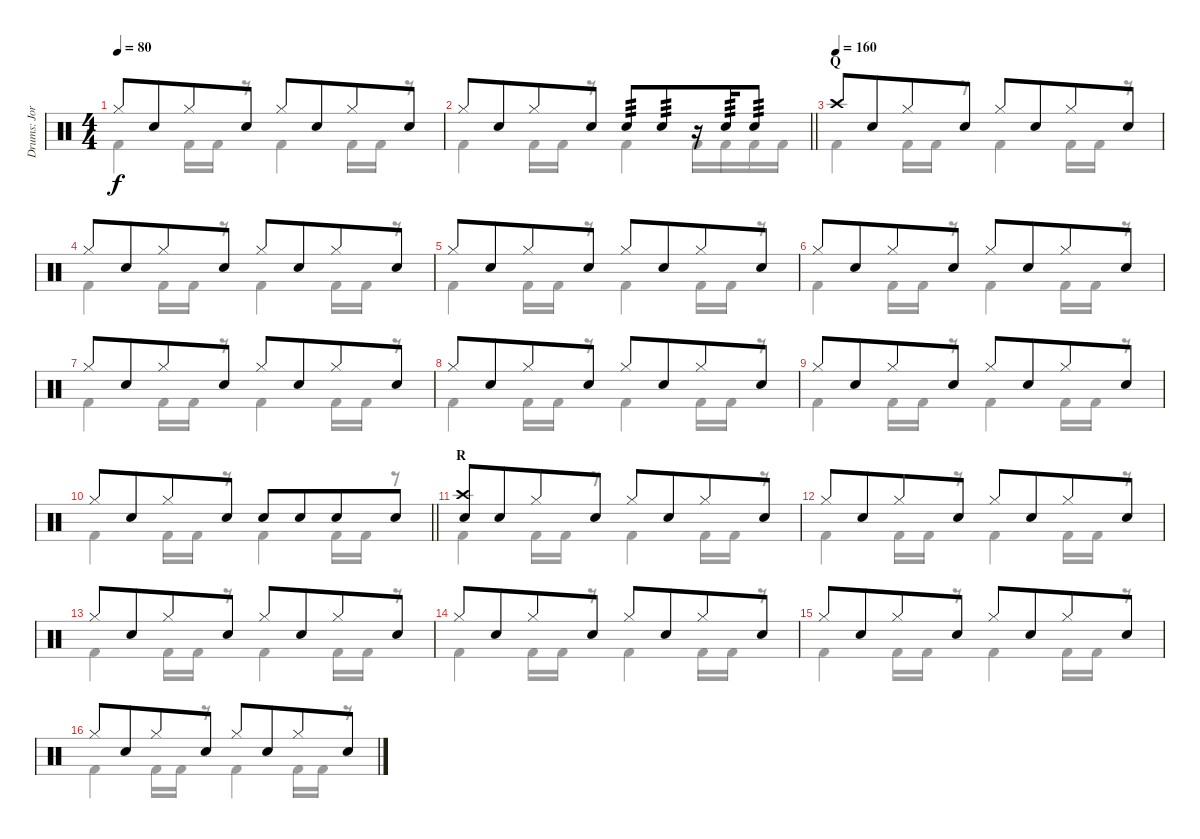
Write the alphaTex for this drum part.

\track ("Drums: Jorg" "Drums: Jor") {instrument percussion}
\staff {score}
\articulation defaults
\voice
\ts (4 4)
\tempo 80
\clef neutral
\ks c "Hi-Hat (closed)".8{dy f} "Snare (hit) 2".8{beam merge} "Hi-Hat (closed)".8 "Snare (hit) 2".8 "Hi-Hat (closed)".8 "Snare (hit) 2".8{beam merge} "Hi-Hat (closed)".8 "Snare (hit) 2".8
|
\barLineRight lightlight "Hi-Hat (closed)".8 "Snare (hit) 2".8{beam merge} "Hi-Hat (closed)".8 "Snare (hit) 2".8 "Snare (hit) 2".8{tp 3} "Snare (hit) 2".8{tp 3 beam merge}
r.16 "Snare (hit) 2".16{tp 3} "Snare (hit) 2".8{tp 3} |
\section ("" "Q")
\tempo (160)
"Crash high (hit)".8 "Snare (hit) 2".8{beam merge} "Hi-Hat (closed)".8 "Snare (hit) 2".8{beam split} "Hi-Hat (closed)".8 "Snare (hit) 2".8{beam merge} "Hi-Hat (closed)".8 "Snare (hit) 2".8 |
"Hi-Hat (closed)".8 "Snare (hit) 2".8{beam merge} "Hi-Hat (closed)".8 "Snare (hit) 2".8{beam split} "Hi-Hat (closed)".8 "Snare (hit) 2".8{beam merge} "Hi-Hat (closed)".8 "Snare (hit) 2".8 |
"Hi-Hat (closed)".8 "Snare (hit) 2".8{beam merge} "Hi-Hat (closed)".8 "Snare (hit) 2".8{beam split} "Hi-Hat (closed)".8 "Snare (hit) 2".8{beam merge} "Hi-Hat (closed)".8 "Snare (hit) 2".8 |
"Hi-Hat (closed)".8 "Snare (hit) 2".8{beam merge} "Hi-Hat (closed)".8 "Snare (hit) 2".8{beam split} "Hi-Hat (closed)".8 "Snare (hit) 2".8{beam merge} "Hi-Hat (closed)".8 "Snare (hit) 2".8 |
"Hi-Hat (closed)".8 "Snare (hit) 2".8{beam merge} "Hi-Hat (closed)".8 "Snare (hit) 2".8{beam split} "Hi-Hat (closed)".8 "Snare (hit) 2".8{beam merge} "Hi-Hat (closed)".8 "Snare (hit) 2".8 |
"Hi-Hat (closed)".8 "Snare (hit) 2".8{beam merge} "Hi-Hat (closed)".8 "Snare (hit) 2".8{beam split} "Hi-Hat (closed)".8 "Snare (hit) 2".8{beam merge} "Hi-Hat (closed)".8 "Snare (hit) 2".8 |
"Hi-Hat (closed)".8 "Snare (hit) 2".8{beam merge} "Hi-Hat (closed)".8 "Snare (hit) 2".8 "Hi-Hat (closed)".8 "Snare (hit) 2".8{beam merge} "Hi-Hat (closed)".8 "Snare (hit) 2".8 |
\barLineRight lightlight "Hi-Hat (closed)".8 "Snare (hit) 2".8{beam merge} "Hi-Hat (closed)".8 "Snare (hit) 2".8 "Snare (hit) 2".8 "Snare (hit) 2".8{beam merge} "Snare (hit) 2".8 "Snare (hit) 2".8
|
\section ("" "R")
("Crash high (hit)" "Snare (hit)").8 "Snare (hit) 2".8{beam merge} "Hi-Hat (closed)".8 "Snare (hit) 2".8{beam split} "Hi-Hat (closed)".8 "Snare (hit) 2".8{beam merge} "Hi-Hat (closed)".8 "Snare (hit) 2".8 |
"Hi-Hat (closed)".8 "Snare (hit) 2".8{beam merge} "Hi-Hat (closed)".8 "Snare (hit) 2".8{beam split} "Hi-Hat (closed)".8 "Snare (hit) 2".8{beam merge} "Hi-Hat (closed)".8 "Snare (hit) 2".8 |
"Hi-Hat (closed)".8 "Snare (hit) 2".8{beam merge} "Hi-Hat (closed)".8 "Snare (hit) 2".8{beam split} "Hi-Hat (closed)".8 "Snare (hit) 2".8{beam merge} "Hi-Hat (closed)".8 "Snare (hit) 2".8 |
"Hi-Hat (closed)".8 "Snare (hit) 2".8{beam merge} "Hi-Hat (closed)".8 "Snare (hit) 2".8{beam split} "Hi-Hat (closed)".8 "Snare (hit) 2".8{beam merge} "Hi-Hat (closed)".8 "Snare (hit) 2".8 |
"Hi-Hat (closed)".8 "Snare (hit) 2".8{beam merge} "Hi-Hat (closed)".8 "Snare (hit) 2".8{beam split} "Hi-Hat (closed)".8 "Snare (hit) 2".8{beam merge} "Hi-Hat (closed)".8 "Snare (hit) 2".8 |
"Hi-Hat (closed)".8 "Snare (hit) 2".8{beam merge} "Hi-Hat (closed)".8 "Snare (hit) 2".8{beam split} "Hi-Hat (closed)".8 "Snare (hit) 2".8{beam merge} "Hi-Hat (closed)".8 "Snare (hit) 2".8
\voice
\clef neutral
\ottava regular
\simile none
\ks c "Kick (hit) 2".4{dy f} "Kick (hit) 2".16 "Kick (hit) 2".16
r.8 "Kick (hit) 2".4 "Kick (hit) 2".16 "Kick (hit) 2".16 r.8 |
\barLineRight lightlight "Kick (hit) 2".4 "Kick (hit) 2".16 "Kick (hit) 2".16
r.8 "Kick (hit) 2".4 "Kick (hit) 2".16 "Kick (hit) 2".16 "Kick (hit) 2".16 "Kick (hit) 2".16 |
"Kick (hit) 2".4 "Kick (hit) 2".16 "Kick (hit) 2".16 r.8 "Kick (hit) 2".4 "Kick (hit) 2".16 "Kick (hit) 2".16 r.8 |
"Kick (hit) 2".4 "Kick (hit) 2".16 "Kick (hit) 2".16 r.8 "Kick (hit) 2".4 "Kick (hit) 2".16 "Kick (hit) 2".16 r.8 |
"Kick (hit) 2".4 "Kick (hit) 2".16 "Kick (hit) 2".16 r.8 "Kick (hit) 2".4 "Kick (hit) 2".16 "Kick (hit) 2".16 r.8 |
"Kick (hit) 2".4 "Kick (hit) 2".16 "Kick (hit) 2".16 r.8 "Kick (hit) 2".4 "Kick (hit) 2".16 "Kick (hit) 2".16 r.8 |
"Kick (hit) 2".4 "Kick (hit) 2".16 "Kick (hit) 2".16 r.8 "Kick (hit) 2".4 "Kick (hit) 2".16 "Kick (hit) 2".16 r.8 |
"Kick (hit) 2".4 "Kick (hit) 2".16 "Kick (hit) 2".16 r.8 "Kick (hit) 2".4 "Kick (hit) 2".16 "Kick (hit) 2".16 r.8 |
"Kick (hit) 2".4 "Kick (hit) 2".16 "Kick (hit) 2".16 r.8 "Kick (hit) 2".4 "Kick (hit) 2".16 "Kick (hit) 2".16 r.8 |
\barLineRight lightlight "Kick (hit) 2".4 "Kick (hit) 2".16 "Kick (hit) 2".16
r.8 "Kick (hit) 2".4 "Kick (hit) 2".16 "Kick (hit) 2".16 r.8 |
"Kick (hit) 2".4 "Kick (hit) 2".16 "Kick (hit) 2".16 r.8 "Kick (hit) 2".4 "Kick (hit) 2".16 "Kick (hit) 2".16 r.8 |
"Kick (hit) 2".4 "Kick (hit) 2".16 "Kick (hit) 2".16 r.8 "Kick (hit) 2".4 "Kick (hit) 2".16 "Kick (hit) 2".16 r.8 |
"Kick (hit) 2".4 "Kick (hit) 2".16 "Kick (hit) 2".16 r.8 "Kick (hit) 2".4 "Kick (hit) 2".16 "Kick (hit) 2".16 r.8 |
"Kick (hit) 2".4 "Kick (hit) 2".16 "Kick (hit) 2".16 r.8 "Kick (hit) 2".4 "Kick (hit) 2".16 "Kick (hit) 2".16 r.8 |
"Kick (hit) 2".4 "Kick (hit) 2".16 "Kick (hit) 2".16 r.8 "Kick (hit) 2".4 "Kick (hit) 2".16 "Kick (hit) 2".16 r.8 |
"Kick (hit) 2".4 "Kick (hit) 2".16 "Kick (hit) 2".16 r.8 "Kick (hit) 2".4 "Kick (hit) 2".16 "Kick (hit) 2".16 r.8
